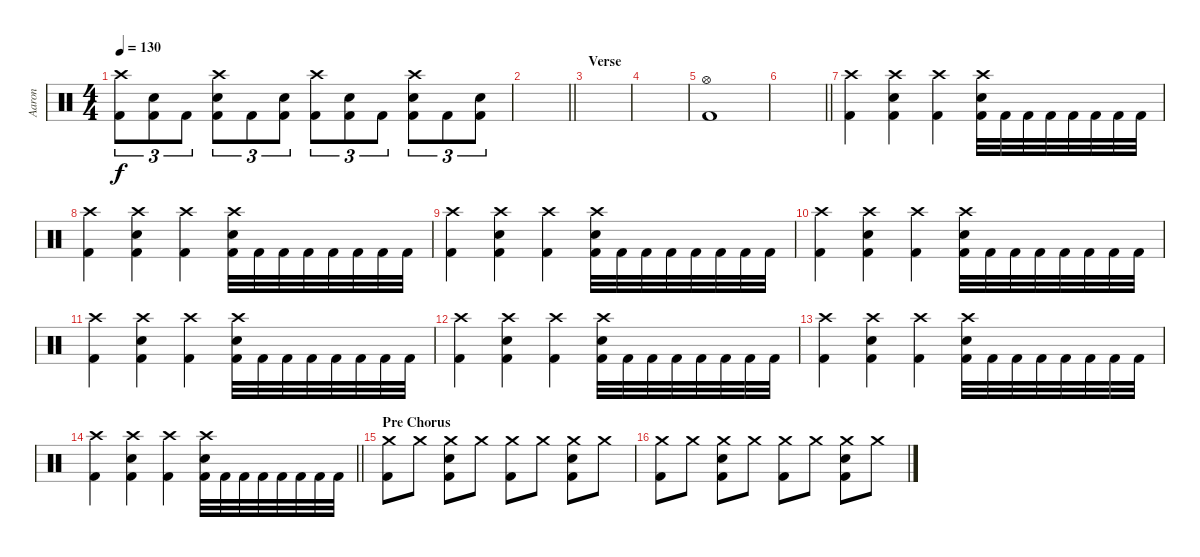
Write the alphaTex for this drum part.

\track ("Aaron" "Aaron") {instrument percussion}
\staff {score}
\articulation defaults
\ts (4 4)
\tempo 130
\clef neutral
\ks c
("Crash high (hit)" "Kick (hit) 2").8{tu (3 2) dy f} ("Snare (hit) 2" "Kick (hit) 2").8{tu (3 2)} "Kick (hit) 2".8{tu (3 2)} ("Crash high (hit)" "Kick (hit) 2" "Snare (hit) 2").8{tu (3 2)} "Kick (hit) 2".8{tu (3 2)} ("Snare (hit) 2" "Kick (hit) 2").8{tu (3 2)} ("Crash high (hit)" "Kick (hit) 2").8{tu (3 2)} ("Snare (hit) 2" "Kick (hit) 2").8{tu (3 2)} "Kick (hit) 2".8{tu (3 2)} ("Crash high (hit)" "Kick (hit) 2" "Snare (hit) 2").8{tu (3 2)} "Kick (hit) 2".8{tu (3 2)} ("Snare (hit) 2" "Kick (hit) 2").8{tu (3 2)} |
\barLineRight lightlight
|
\section ("" "Verse")
|
|
("Hi-Hat (open)" "Kick (hit) 2").1 |
\barLineRight lightlight
|
\section ("" "")
("Crash high (hit)" "Kick (hit) 2").4 ("Crash high (hit)" "Snare (hit) 2" "Kick (hit) 2").4 ("Crash high (hit)" "Kick (hit) 2").4 ("Crash high (hit)" "Snare (hit) 2" "Kick (hit) 2").32 "Kick (hit) 2".32 "Kick (hit) 2".32 "Kick (hit) 2".32 "Kick (hit) 2".32 "Kick (hit) 2".32 "Kick (hit) 2".32 "Kick (hit) 2".32 |
("Crash high (hit)" "Kick (hit) 2").4 ("Crash high (hit)" "Snare (hit) 2" "Kick (hit) 2").4 ("Crash high (hit)" "Kick (hit) 2").4 ("Crash high (hit)" "Snare (hit) 2" "Kick (hit) 2").32 "Kick (hit) 2".32 "Kick (hit) 2".32 "Kick (hit) 2".32 "Kick (hit) 2".32 "Kick (hit) 2".32 "Kick (hit) 2".32 "Kick (hit) 2".32 |
("Crash high (hit)" "Kick (hit) 2").4 ("Crash high (hit)" "Snare (hit) 2" "Kick (hit) 2").4 ("Crash high (hit)" "Kick (hit) 2").4 ("Crash high (hit)" "Snare (hit) 2" "Kick (hit) 2").32 "Kick (hit) 2".32 "Kick (hit) 2".32 "Kick (hit) 2".32 "Kick (hit) 2".32 "Kick (hit) 2".32 "Kick (hit) 2".32 "Kick (hit) 2".32 |
("Crash high (hit)" "Kick (hit) 2").4 ("Crash high (hit)" "Snare (hit) 2" "Kick (hit) 2").4 ("Crash high (hit)" "Kick (hit) 2").4 ("Crash high (hit)" "Snare (hit) 2" "Kick (hit) 2").32 "Kick (hit) 2".32 "Kick (hit) 2".32 "Kick (hit) 2".32 "Kick (hit) 2".32 "Kick (hit) 2".32 "Kick (hit) 2".32 "Kick (hit) 2".32 |
("Crash high (hit)" "Kick (hit) 2").4 ("Crash high (hit)" "Snare (hit) 2" "Kick (hit) 2").4 ("Crash high (hit)" "Kick (hit) 2").4 ("Crash high (hit)" "Snare (hit) 2" "Kick (hit) 2").32 "Kick (hit) 2".32 "Kick (hit) 2".32 "Kick (hit) 2".32 "Kick (hit) 2".32 "Kick (hit) 2".32 "Kick (hit) 2".32 "Kick (hit) 2".32 |
("Crash high (hit)" "Kick (hit) 2").4 ("Crash high (hit)" "Snare (hit) 2" "Kick (hit) 2").4 ("Crash high (hit)" "Kick (hit) 2").4 ("Crash high (hit)" "Snare (hit) 2" "Kick (hit) 2").32 "Kick (hit) 2".32 "Kick (hit) 2".32 "Kick (hit) 2".32 "Kick (hit) 2".32 "Kick (hit) 2".32 "Kick (hit) 2".32 "Kick (hit) 2".32 |
("Crash high (hit)" "Kick (hit) 2").4 ("Crash high (hit)" "Snare (hit) 2" "Kick (hit) 2").4 ("Crash high (hit)" "Kick (hit) 2").4 ("Crash high (hit)" "Snare (hit) 2" "Kick (hit) 2").32 "Kick (hit) 2".32 "Kick (hit) 2".32 "Kick (hit) 2".32 "Kick (hit) 2".32 "Kick (hit) 2".32 "Kick (hit) 2".32 "Kick (hit) 2".32 |
\barLineRight lightlight
("Crash high (hit)" "Kick (hit) 2").4 ("Crash high (hit)" "Snare (hit) 2" "Kick (hit) 2").4 ("Crash high (hit)" "Kick (hit) 2").4 ("Crash high (hit)" "Snare (hit) 2" "Kick (hit) 2").32 "Kick (hit) 2".32 "Kick (hit) 2".32 "Kick (hit) 2".32 "Kick (hit) 2".32 "Kick (hit) 2".32 "Kick (hit) 2".32 "Kick (hit) 2".32 |
\section ("" "Pre Chorus")
("Crash medium (hit)" "Kick (hit) 2").8 "Crash medium (hit)".8 ("Crash medium (hit)" "Snare (hit) 2" "Kick (hit) 2").8 "Crash medium (hit)".8 ("Crash medium (hit)" "Kick (hit) 2").8 "Crash medium (hit)".8 ("Crash medium (hit)" "Snare (hit) 2" "Kick (hit) 2").8 "Crash medium (hit)".8 |
("Crash medium (hit)" "Kick (hit) 2").8 "Crash medium (hit)".8 ("Crash medium (hit)" "Snare (hit) 2" "Kick (hit) 2").8 "Crash medium (hit)".8 ("Crash medium (hit)" "Kick (hit) 2").8 "Crash medium (hit)".8 ("Crash medium (hit)" "Snare (hit) 2" "Kick (hit) 2").8 "Crash medium (hit)".8
